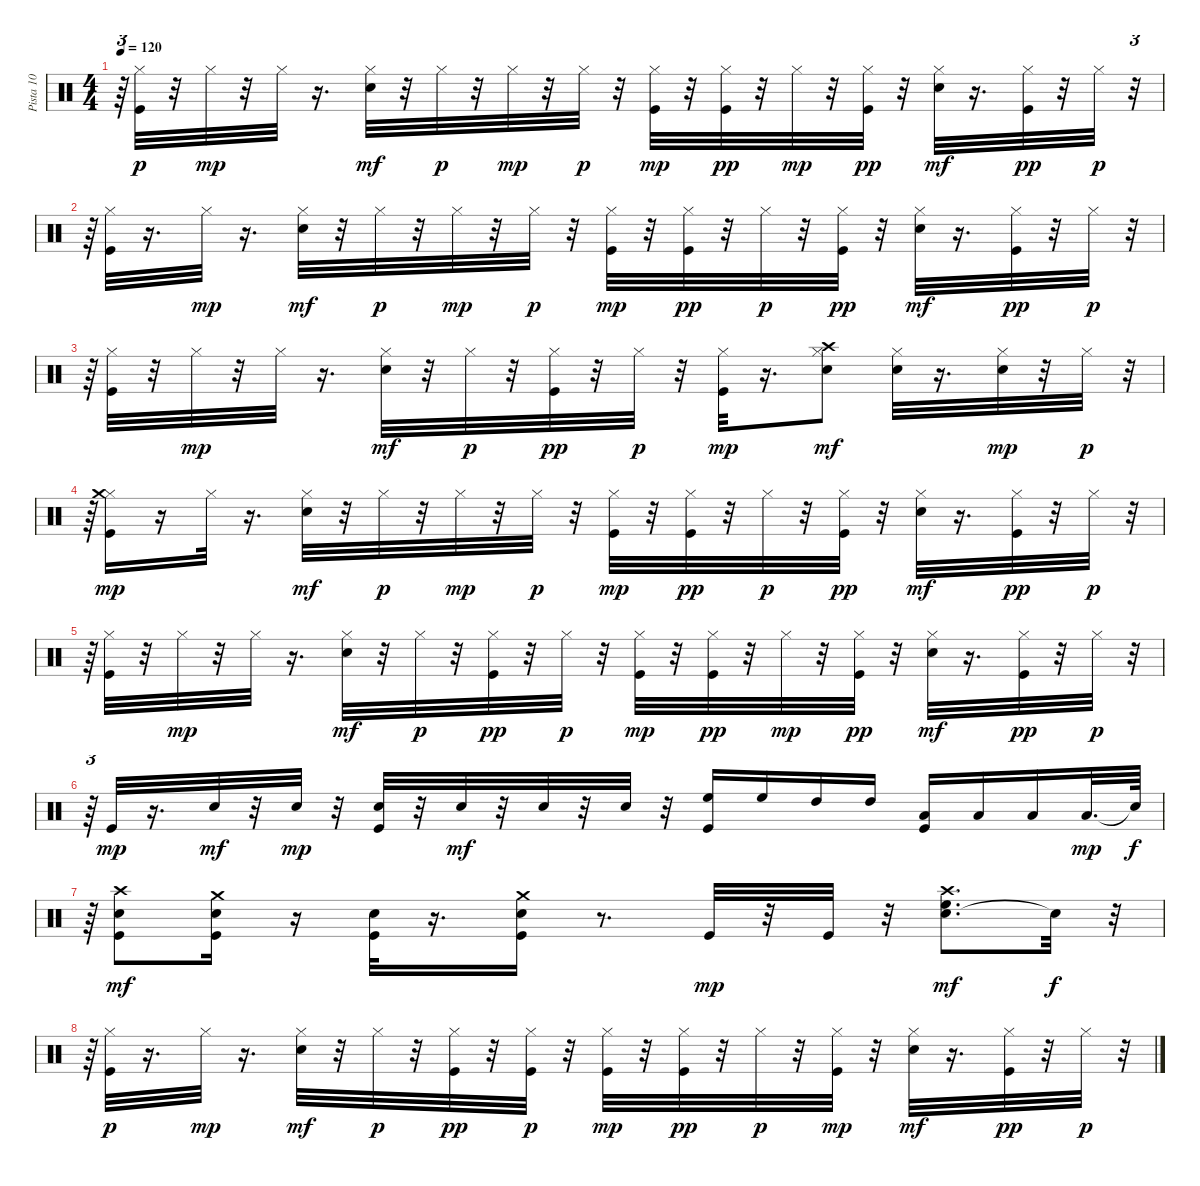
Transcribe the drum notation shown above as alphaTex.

\track ("Pista 10" "Pista 10") {instrument percussion}
\staff {score}
\articulation defaults
\ts (4 4)
\tempo 120
\clef neutral
\ks c
r.64{tu (3 2) dy p} ("Kick (hit)" "Hi-Hat (closed)").32 r.32 "Hi-Hat (closed)".32{dy mp} r.32 "Hi-Hat (closed)".32 r.16{d} ("Hi-Hat (closed)" "Snare (hit) 2").32{dy mf} r.32 "Hi-Hat (closed)".32{dy p} r.32 "Hi-Hat (closed)".32{dy mp} r.32 "Hi-Hat (closed)".32{dy p} r.32 ("Kick (hit)" "Hi-Hat (closed)").32{dy mp} r.32 ("Kick (hit)" "Hi-Hat (closed)").32{dy pp} r.32 "Hi-Hat (closed)".32{dy mp} r.32 ("Kick (hit)" "Hi-Hat (closed)").32{dy pp} r.32 ("Hi-Hat (closed)" "Snare (hit) 2").32{dy mf} r.16{d} ("Hi-Hat (closed)" "Kick (hit)").32{dy pp} r.32 "Hi-Hat (closed)".32{dy p} r.32{tu (3 2)} |
r.64{tu (3 2)} ("Kick (hit)" "Hi-Hat (closed)").32 r.16{d} "Hi-Hat (closed)".32{dy mp} r.16{d} ("Hi-Hat (closed)" "Snare (hit) 2").32{dy mf} r.32 "Hi-Hat (closed)".32{dy p} r.32 "Hi-Hat (closed)".32{dy mp} r.32 "Hi-Hat (closed)".32{dy p} r.32 ("Kick (hit)" "Hi-Hat (closed)").32{dy mp} r.32 ("Hi-Hat (closed)" "Kick (hit)").32{dy pp} r.32 "Hi-Hat (closed)".32{dy p} r.32 ("Hi-Hat (closed)" "Kick (hit)").32{dy pp} r.32 ("Hi-Hat (closed)" "Snare (hit) 2").32{dy mf} r.16{d} ("Hi-Hat (closed)" "Kick (hit)").32{dy pp} r.32 "Hi-Hat (closed)".32{dy p} r.32{tu (3 2)} |
r.64{tu (3 2)} ("Kick (hit)" "Hi-Hat (closed)").32 r.32 "Hi-Hat (closed)".32{dy mp} r.32 "Hi-Hat (closed)".32 r.16{d} ("Hi-Hat (closed)" "Snare (hit) 2").32{dy mf} r.32 "Hi-Hat (closed)".32{dy p} r.32 ("Hi-Hat (closed)" "Kick (hit)").32{dy pp} r.32 "Hi-Hat (closed)".32{dy p} r.32 ("Kick (hit)" "Hi-Hat (closed)").32{dy mp} r.16{d} ("Hi-Hat (closed)" "Crash high (hit)" "Snare (hit) 2").8{dy mf} ("Hi-Hat (closed)" "Snare (hit) 2").32 r.16{d} ("Hi-Hat (closed)" "Snare (hit) 2").32{dy mp} r.32 "Hi-Hat (closed)".32{dy p} r.32{tu (3 2)} |
r.64{tu (3 2)} ("Kick (hit)" "Hi-Hat (closed)" "Crash medium (hit)").16{dy mp} r.16 "Hi-Hat (closed)".32 r.16{d} ("Hi-Hat (closed)" "Snare (hit) 2").32{dy mf} r.32 "Hi-Hat (closed)".32{dy p} r.32 "Hi-Hat (closed)".32{dy mp} r.32 "Hi-Hat (closed)".32{dy p} r.32 ("Kick (hit)" "Hi-Hat (closed)").32{dy mp} r.32 ("Hi-Hat (closed)" "Kick (hit)").32{dy pp} r.32 "Hi-Hat (closed)".32{dy p} r.32 ("Hi-Hat (closed)" "Kick (hit)").32{dy pp} r.32 ("Hi-Hat (closed)" "Snare (hit) 2").32{dy mf} r.16{d} ("Hi-Hat (closed)" "Kick (hit)").32{dy pp} r.32 "Hi-Hat (closed)".32{dy p} r.32{tu (3 2)} |
r.64{tu (3 2)} ("Kick (hit)" "Hi-Hat (closed)").32 r.32 "Hi-Hat (closed)".32{dy mp} r.32 "Hi-Hat (closed)".32 r.16{d} ("Hi-Hat (closed)" "Snare (hit) 2").32{dy mf} r.32 "Hi-Hat (closed)".32{dy p} r.32 ("Hi-Hat (closed)" "Kick (hit)").32{dy pp} r.32 "Hi-Hat (closed)".32{dy p} r.32 ("Kick (hit)" "Hi-Hat (closed)").32{dy mp} r.32 ("Hi-Hat (closed)" "Kick (hit)").32{dy pp} r.32 "Hi-Hat (closed)".32{dy mp} r.32 ("Hi-Hat (closed)" "Kick (hit)").32{dy pp} r.32 ("Hi-Hat (closed)" "Snare (hit) 2").32{dy mf} r.16{d} ("Hi-Hat (closed)" "Kick (hit)").32{dy pp} r.32 "Hi-Hat (closed)".32{dy p} r.32{tu (3 2)} |
r.64{tu (3 2)} "Kick (hit)".32{dy mp} r.16{d} "Snare (hit) 2".32{dy mf} r.32 "Snare (hit) 2".32{dy mp} r.32 ("Kick (hit)" "Snare (hit) 2").32 r.32 "Snare (hit) 2".32{dy mf} r.32 "Snare (hit) 2".32 r.32 "Snare (hit) 2".32 r.32 ("Kick (hit)" "High Floor Tom (hit)").16 "High Floor Tom (hit)".16 "High Tom (hit)".16 "High Tom (hit)".16 ("Kick (hit)" "Low Tom (hit)").16 "Low Tom (hit)".16 "Low Tom (hit)".16 "Low Tom (hit)".32{d dy mp} "Snare (hit)"{t}.64{dy f} |
r.64{tu (3 2)} ("Kick (hit)" "Crash high (hit)" "Snare (hit) 2").8{dy mf} ("Kick (hit)" "Crash medium (hit)" "Snare (hit) 2").16 r.16 ("Kick (hit)" "Snare (hit) 2").32 r.16{d} ("Kick (hit)" "Crash medium (hit)" "Snare (hit) 2").16 r.8{d} "Kick (hit)".32{dy mp} r.32 "Kick (hit)".32 r.32 ("Snare (hit) 2" "Crash high (hit)" "High Floor Tom (hit)").8{d dy mf} "Snare (hit)"{t}.32{dy f} r.32{tu (3 2)} |
r.64{tu (3 2)} ("Kick (hit)" "Hi-Hat (closed)").32{dy p} r.16{d} "Hi-Hat (closed)".32{dy mp} r.16{d} ("Hi-Hat (closed)" "Snare (hit) 2").32{dy mf} r.32 "Hi-Hat (closed)".32{dy p} r.32 ("Hi-Hat (closed)" "Kick (hit)").32{dy pp} r.32 ("Kick (hit)" "Hi-Hat (closed)").32{dy p} r.32 ("Kick (hit)" "Hi-Hat (closed)").32{dy mp} r.32 ("Hi-Hat (closed)" "Kick (hit)").32{dy pp} r.32 "Hi-Hat (closed)".32{dy p} r.32 ("Hi-Hat (closed)" "Kick (hit)").32{dy mp} r.32 ("Hi-Hat (closed)" "Snare (hit) 2").32{dy mf} r.16{d} ("Hi-Hat (closed)" "Kick (hit)").32{dy pp} r.32 "Hi-Hat (closed)".32{dy p} r.32{tu (3 2)}
